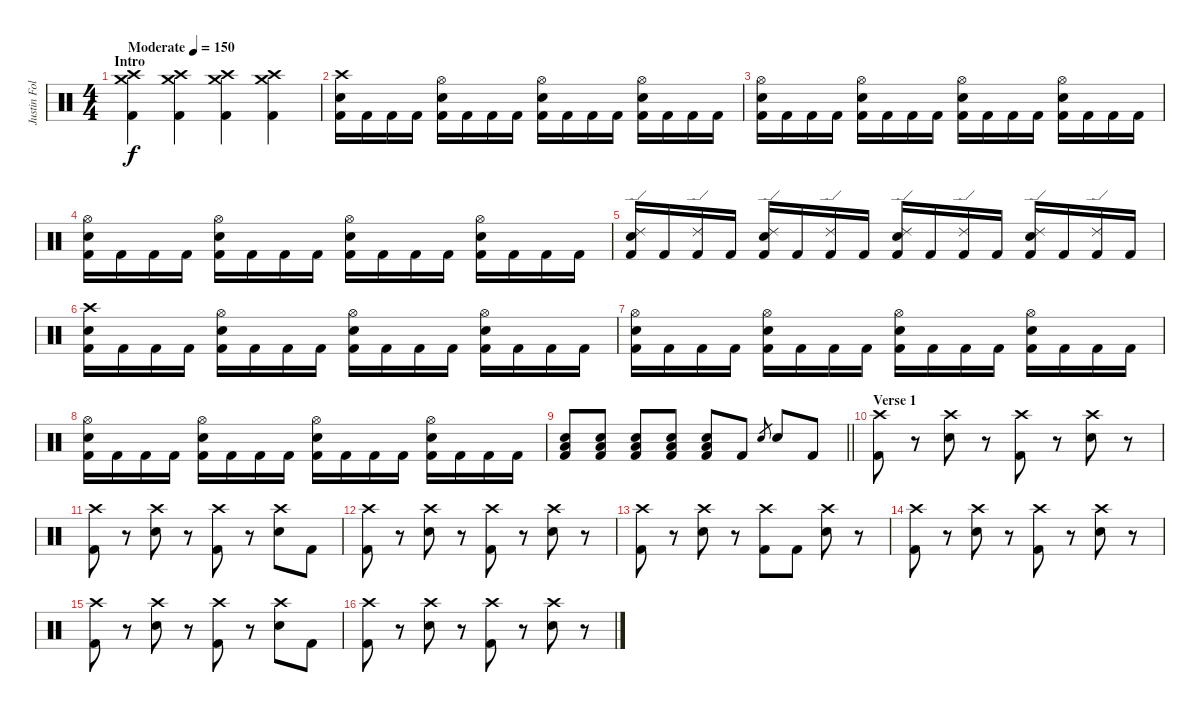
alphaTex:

\track ("Justin Foley" "Justin Fol") {instrument percussion}
\staff {score}
\articulation defaults
\ts (4 4)
\section ("" "Intro")
\tempo (150 "Moderate")
\clef neutral
\ks c
("Crash medium (hit)" "Crash high (hit)" "Kick (hit) 2").4{dy f} ("Crash medium (hit)" "Crash high (hit)" "Kick (hit) 2").4 ("Crash medium (hit)" "Crash high (hit)" "Kick (hit) 2").4 ("Crash medium (hit)" "Crash high (hit)" "Kick (hit) 2").4 |
("Crash high (hit)" "Snare (hit) 2" "Kick (hit) 2").16 "Kick (hit) 2".16 "Kick (hit) 2".16 "Kick (hit) 2".16 ("Hi-Hat (open)" "Snare (hit) 2" "Kick (hit) 2").16 "Kick (hit) 2".16 "Kick (hit) 2".16 "Kick (hit) 2".16 ("Hi-Hat (open)" "Snare (hit) 2" "Kick (hit) 2").16 "Kick (hit) 2".16 "Kick (hit) 2".16 "Kick (hit) 2".16 ("Hi-Hat (open)" "Snare (hit) 2" "Kick (hit) 2").16 "Kick (hit) 2".16 "Kick (hit) 2".16 "Kick (hit) 2".16 |
("Hi-Hat (open)" "Snare (hit) 2" "Kick (hit) 2").16 "Kick (hit) 2".16 "Kick (hit) 2".16 "Kick (hit) 2".16 ("Hi-Hat (open)" "Snare (hit) 2" "Kick (hit) 2").16 "Kick (hit) 2".16 "Kick (hit) 2".16 "Kick (hit) 2".16 ("Hi-Hat (open)" "Snare (hit) 2" "Kick (hit) 2").16 "Kick (hit) 2".16 "Kick (hit) 2".16 "Kick (hit) 2".16 ("Hi-Hat (open)" "Snare (hit) 2" "Kick (hit) 2").16 "Kick (hit) 2".16 "Kick (hit) 2".16 "Kick (hit) 2".16 |
("Hi-Hat (open)" "Snare (hit) 2" "Kick (hit) 2").16 "Kick (hit) 2".16 "Kick (hit) 2".16 "Kick (hit) 2".16 ("Hi-Hat (open)" "Snare (hit) 2" "Kick (hit) 2").16 "Kick (hit) 2".16 "Kick (hit) 2".16 "Kick (hit) 2".16 ("Hi-Hat (open)" "Snare (hit) 2" "Kick (hit) 2").16 "Kick (hit) 2".16 "Kick (hit) 2".16 "Kick (hit) 2".16 ("Hi-Hat (open)" "Snare (hit) 2" "Kick (hit) 2").16 "Kick (hit) 2".16 "Kick (hit) 2".16 "Kick (hit) 2".16 |
("Ride (edge) 2" "Snare (hit) 2" "Kick (hit) 2").16 "Kick (hit) 2".16 ("Ride (edge) 2" "Kick (hit) 2").16 "Kick (hit) 2".16 ("Ride (edge) 2" "Snare (hit) 2" "Kick (hit) 2").16 "Kick (hit) 2".16 ("Ride (edge) 2" "Kick (hit) 2").16 "Kick (hit) 2".16 ("Ride (edge) 2" "Snare (hit) 2" "Kick (hit) 2").16 "Kick (hit) 2".16 ("Ride (edge) 2" "Kick (hit) 2").16 "Kick (hit) 2".16 ("Ride (edge) 2" "Snare (hit) 2" "Kick (hit) 2").16 "Kick (hit) 2".16 ("Ride (edge) 2" "Kick (hit) 2").16 "Kick (hit) 2".16 |
("Crash high (hit)" "Snare (hit) 2" "Kick (hit) 2").16 "Kick (hit) 2".16 "Kick (hit) 2".16 "Kick (hit) 2".16 ("Hi-Hat (open)" "Snare (hit) 2" "Kick (hit) 2").16 "Kick (hit) 2".16 "Kick (hit) 2".16 "Kick (hit) 2".16 ("Hi-Hat (open)" "Snare (hit) 2" "Kick (hit) 2").16 "Kick (hit) 2".16 "Kick (hit) 2".16 "Kick (hit) 2".16 ("Hi-Hat (open)" "Snare (hit) 2" "Kick (hit) 2").16 "Kick (hit) 2".16 "Kick (hit) 2".16 "Kick (hit) 2".16 |
("Hi-Hat (open)" "Snare (hit) 2" "Kick (hit) 2").16 "Kick (hit) 2".16 "Kick (hit) 2".16 "Kick (hit) 2".16 ("Hi-Hat (open)" "Snare (hit) 2" "Kick (hit) 2").16 "Kick (hit) 2".16 "Kick (hit) 2".16 "Kick (hit) 2".16 ("Hi-Hat (open)" "Snare (hit) 2" "Kick (hit) 2").16 "Kick (hit) 2".16 "Kick (hit) 2".16 "Kick (hit) 2".16 ("Hi-Hat (open)" "Snare (hit) 2" "Kick (hit) 2").16 "Kick (hit) 2".16 "Kick (hit) 2".16 "Kick (hit) 2".16 |
("Hi-Hat (open)" "Snare (hit) 2" "Kick (hit) 2").16 "Kick (hit) 2".16 "Kick (hit) 2".16 "Kick (hit) 2".16 ("Hi-Hat (open)" "Snare (hit) 2" "Kick (hit) 2").16 "Kick (hit) 2".16 "Kick (hit) 2".16 "Kick (hit) 2".16 ("Hi-Hat (open)" "Snare (hit) 2" "Kick (hit) 2").16 "Kick (hit) 2".16 "Kick (hit) 2".16 "Kick (hit) 2".16 ("Hi-Hat (open)" "Snare (hit) 2" "Kick (hit) 2").16 "Kick (hit) 2".16 "Kick (hit) 2".16 "Kick (hit) 2".16 |
\barLineRight lightlight
("Low Floor Tom (hit)" "Snare (hit) 2" "Kick (hit) 2").8 ("Low Floor Tom (hit)" "Snare (hit) 2" "Kick (hit) 2").8 ("Low Floor Tom (hit)" "Snare (hit) 2" "Kick (hit) 2").8 ("Low Floor Tom (hit)" "Snare (hit) 2" "Kick (hit) 2").8 ("Low Floor Tom (hit)" "Snare (hit) 2" "Kick (hit) 2").8 "Kick (hit) 2".8 "Snare (hit) 2".8{gr} "Snare (hit) 2".8 "Kick (hit) 2".8 |
\section ("" "Verse 1")
("Crash high (hit)" "Kick (hit) 2").8 r.8 ("Crash high (hit)" "Snare (hit) 2").8 r.8 ("Crash high (hit)" "Kick (hit) 2").8 r.8 ("Crash high (hit)" "Snare (hit) 2").8 r.8 |
("Crash high (hit)" "Kick (hit) 2").8 r.8 ("Crash high (hit)" "Snare (hit) 2").8 r.8 ("Crash high (hit)" "Kick (hit) 2").8 r.8 ("Crash high (hit)" "Snare (hit) 2").8 "Kick (hit) 2".8 |
("Crash high (hit)" "Kick (hit) 2").8 r.8 ("Crash high (hit)" "Snare (hit) 2").8 r.8 ("Crash high (hit)" "Kick (hit) 2").8 r.8 ("Crash high (hit)" "Snare (hit) 2").8 r.8 |
("Crash high (hit)" "Kick (hit) 2").8 r.8 ("Crash high (hit)" "Snare (hit) 2").8 r.8 ("Crash high (hit)" "Kick (hit) 2").8 "Kick (hit) 2".8 ("Crash high (hit)" "Snare (hit) 2").8 r.8 |
("Crash high (hit)" "Kick (hit) 2").8 r.8 ("Crash high (hit)" "Snare (hit) 2").8 r.8 ("Crash high (hit)" "Kick (hit) 2").8 r.8 ("Crash high (hit)" "Snare (hit) 2").8 r.8 |
("Crash high (hit)" "Kick (hit) 2").8 r.8 ("Crash high (hit)" "Snare (hit) 2").8 r.8 ("Crash high (hit)" "Kick (hit) 2").8 r.8 ("Crash high (hit)" "Snare (hit) 2").8 "Kick (hit) 2".8 |
("Crash high (hit)" "Kick (hit) 2").8 r.8 ("Crash high (hit)" "Snare (hit) 2").8 r.8 ("Crash high (hit)" "Kick (hit) 2").8 r.8 ("Crash high (hit)" "Snare (hit) 2").8 r.8
